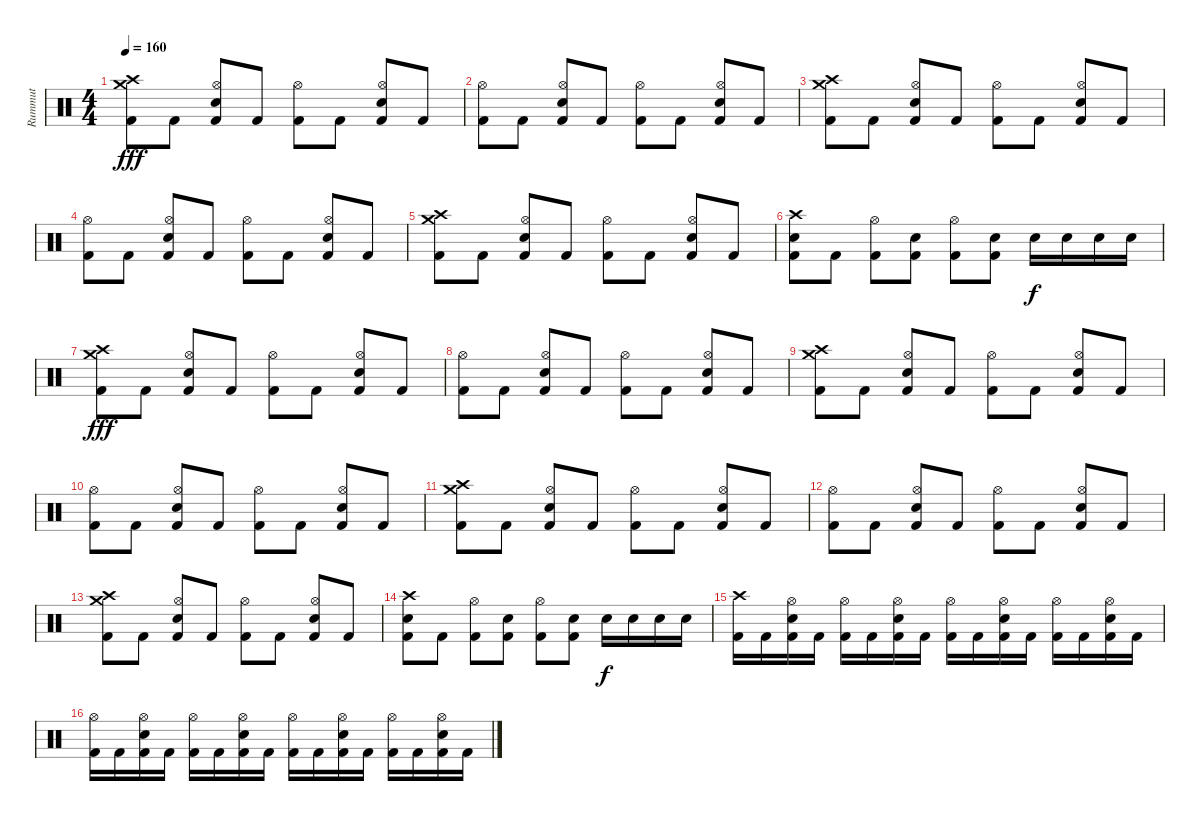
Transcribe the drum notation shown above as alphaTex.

\track ("Rummut" "Rummut") {instrument percussion}
\staff {score}
\articulation defaults
\ts (4 4)
\tempo 160
\clef neutral
\ks c
("Crash high (hit)" "Crash medium (hit)" "Kick (hit) 2").8{dy fff} "Kick (hit) 2".8 ("Hi-Hat (open)" "Electric Snare (hit)" "Kick (hit) 2").8 "Kick (hit) 2".8 ("Hi-Hat (open)" "Kick (hit) 2").8 "Kick (hit) 2".8 ("Hi-Hat (open)" "Electric Snare (hit)" "Kick (hit) 2").8 "Kick (hit) 2".8 |
("Hi-Hat (open)" "Kick (hit) 2").8 "Kick (hit) 2".8 ("Hi-Hat (open)" "Electric Snare (hit)" "Kick (hit) 2").8 "Kick (hit) 2".8 ("Hi-Hat (open)" "Kick (hit) 2").8 "Kick (hit) 2".8 ("Hi-Hat (open)" "Electric Snare (hit)" "Kick (hit) 2").8 "Kick (hit) 2".8 |
("Crash high (hit)" "Crash medium (hit)" "Kick (hit) 2").8 "Kick (hit) 2".8 ("Hi-Hat (open)" "Electric Snare (hit)" "Kick (hit) 2").8 "Kick (hit) 2".8 ("Hi-Hat (open)" "Kick (hit) 2").8 "Kick (hit) 2".8 ("Hi-Hat (open)" "Electric Snare (hit)" "Kick (hit) 2").8 "Kick (hit) 2".8 |
("Hi-Hat (open)" "Kick (hit) 2").8 "Kick (hit) 2".8 ("Hi-Hat (open)" "Electric Snare (hit)" "Kick (hit) 2").8 "Kick (hit) 2".8 ("Hi-Hat (open)" "Kick (hit) 2").8 "Kick (hit) 2".8 ("Hi-Hat (open)" "Electric Snare (hit)" "Kick (hit) 2").8 "Kick (hit) 2".8 |
("Crash high (hit)" "Crash medium (hit)" "Kick (hit) 2").8 "Kick (hit) 2".8 ("Hi-Hat (open)" "Electric Snare (hit)" "Kick (hit) 2").8 "Kick (hit) 2".8 ("Hi-Hat (open)" "Kick (hit) 2").8 "Kick (hit) 2".8 ("Hi-Hat (open)" "Electric Snare (hit)" "Kick (hit) 2").8 "Kick (hit) 2".8 |
("Crash high (hit)" "Electric Snare (hit)" "Kick (hit) 2").8 "Kick (hit) 2".8 ("Hi-Hat (open)" "Kick (hit) 2").8 ("Electric Snare (hit)" "Kick (hit) 2").8 ("Hi-Hat (open)" "Kick (hit) 2").8 ("Electric Snare (hit)" "Kick (hit) 2").8 "Electric Snare (hit)".16{dy f} "Electric Snare (hit)".16 "Electric Snare (hit)".16 "Electric Snare (hit)".16 |
("Crash high (hit)" "Crash medium (hit)" "Kick (hit) 2").8{dy fff} "Kick (hit) 2".8 ("Hi-Hat (open)" "Electric Snare (hit)" "Kick (hit) 2").8 "Kick (hit) 2".8 ("Hi-Hat (open)" "Kick (hit) 2").8 "Kick (hit) 2".8 ("Hi-Hat (open)" "Electric Snare (hit)" "Kick (hit) 2").8 "Kick (hit) 2".8 |
("Hi-Hat (open)" "Kick (hit) 2").8 "Kick (hit) 2".8 ("Hi-Hat (open)" "Electric Snare (hit)" "Kick (hit) 2").8 "Kick (hit) 2".8 ("Hi-Hat (open)" "Kick (hit) 2").8 "Kick (hit) 2".8 ("Hi-Hat (open)" "Electric Snare (hit)" "Kick (hit) 2").8 "Kick (hit) 2".8 |
("Crash high (hit)" "Crash medium (hit)" "Kick (hit) 2").8 "Kick (hit) 2".8 ("Hi-Hat (open)" "Electric Snare (hit)" "Kick (hit) 2").8 "Kick (hit) 2".8 ("Hi-Hat (open)" "Kick (hit) 2").8 "Kick (hit) 2".8 ("Hi-Hat (open)" "Electric Snare (hit)" "Kick (hit) 2").8 "Kick (hit) 2".8 |
("Hi-Hat (open)" "Kick (hit) 2").8 "Kick (hit) 2".8 ("Hi-Hat (open)" "Electric Snare (hit)" "Kick (hit) 2").8 "Kick (hit) 2".8 ("Hi-Hat (open)" "Kick (hit) 2").8 "Kick (hit) 2".8 ("Hi-Hat (open)" "Electric Snare (hit)" "Kick (hit) 2").8 "Kick (hit) 2".8 |
("Crash high (hit)" "Crash medium (hit)" "Kick (hit) 2").8 "Kick (hit) 2".8 ("Hi-Hat (open)" "Electric Snare (hit)" "Kick (hit) 2").8 "Kick (hit) 2".8 ("Hi-Hat (open)" "Kick (hit) 2").8 "Kick (hit) 2".8 ("Hi-Hat (open)" "Electric Snare (hit)" "Kick (hit) 2").8 "Kick (hit) 2".8 |
("Hi-Hat (open)" "Kick (hit) 2").8 "Kick (hit) 2".8 ("Hi-Hat (open)" "Electric Snare (hit)" "Kick (hit) 2").8 "Kick (hit) 2".8 ("Hi-Hat (open)" "Kick (hit) 2").8 "Kick (hit) 2".8 ("Hi-Hat (open)" "Electric Snare (hit)" "Kick (hit) 2").8 "Kick (hit) 2".8 |
("Crash high (hit)" "Crash medium (hit)" "Kick (hit) 2").8 "Kick (hit) 2".8 ("Hi-Hat (open)" "Electric Snare (hit)" "Kick (hit) 2").8 "Kick (hit) 2".8 ("Hi-Hat (open)" "Kick (hit) 2").8 "Kick (hit) 2".8 ("Hi-Hat (open)" "Electric Snare (hit)" "Kick (hit) 2").8 "Kick (hit) 2".8 |
("Crash high (hit)" "Electric Snare (hit)" "Kick (hit) 2").8 "Kick (hit) 2".8 ("Hi-Hat (open)" "Kick (hit) 2").8 ("Electric Snare (hit)" "Kick (hit) 2").8 ("Hi-Hat (open)" "Kick (hit) 2").8 ("Electric Snare (hit)" "Kick (hit) 2").8 "Electric Snare (hit)".16{dy f} "Electric Snare (hit)".16 "Electric Snare (hit)".16 "Electric Snare (hit)".16 |
("Crash high (hit)" "Kick (hit) 2").16 "Kick (hit) 2".16 ("Hi-Hat (open)" "Snare (hit) 2" "Kick (hit) 2").16 "Kick (hit) 2".16 ("Hi-Hat (open)" "Kick (hit) 2").16 "Kick (hit) 2".16 ("Hi-Hat (open)" "Snare (hit) 2" "Kick (hit) 2").16 "Kick (hit) 2".16 ("Hi-Hat (open)" "Kick (hit) 2").16 "Kick (hit) 2".16 ("Hi-Hat (open)" "Snare (hit) 2" "Kick (hit) 2").16 "Kick (hit) 2".16 ("Hi-Hat (open)" "Kick (hit) 2").16 "Kick (hit) 2".16 ("Hi-Hat (open)" "Snare (hit) 2" "Kick (hit) 2").16 "Kick (hit) 2".16 |
("Hi-Hat (open)" "Kick (hit) 2").16 "Kick (hit) 2".16 ("Hi-Hat (open)" "Snare (hit) 2" "Kick (hit) 2").16 "Kick (hit) 2".16 ("Hi-Hat (open)" "Kick (hit) 2").16 "Kick (hit) 2".16 ("Hi-Hat (open)" "Snare (hit) 2" "Kick (hit) 2").16 "Kick (hit) 2".16 ("Hi-Hat (open)" "Kick (hit) 2").16 "Kick (hit) 2".16 ("Hi-Hat (open)" "Snare (hit) 2" "Kick (hit) 2").16 "Kick (hit) 2".16 ("Hi-Hat (open)" "Kick (hit) 2").16 "Kick (hit) 2".16 ("Hi-Hat (open)" "Snare (hit) 2" "Kick (hit) 2").16 "Kick (hit) 2".16
